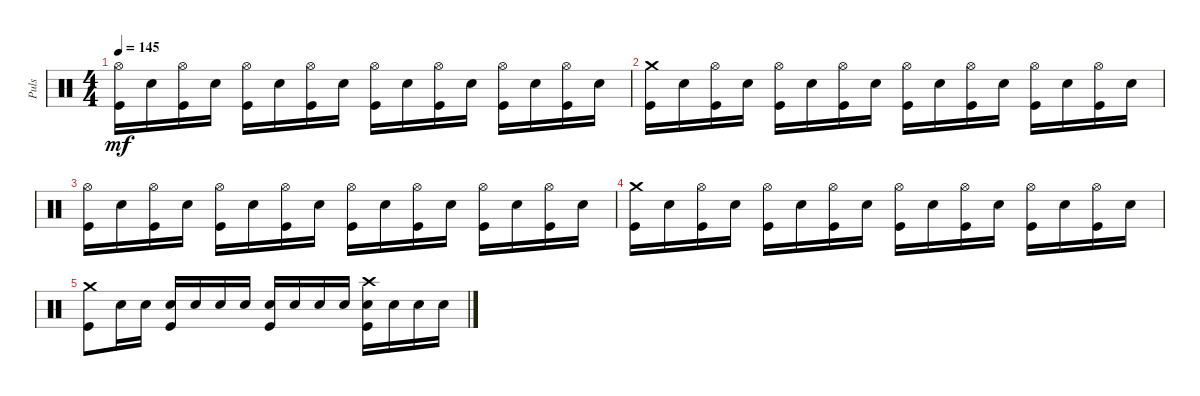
\track ("Puls" "Puls") {instrument percussion}
\staff {score}
\articulation defaults
\ts (4 4)
\tempo 145
\clef neutral
\ks c
("Kick (hit)" "Hi-Hat (open)").16{dy mf} "Snare (hit) 2".16 ("Kick (hit)" "Hi-Hat (open)").16 "Snare (hit) 2".16 ("Kick (hit)" "Hi-Hat (open)").16 "Snare (hit) 2".16 ("Kick (hit)" "Hi-Hat (open)").16 "Snare (hit) 2".16 ("Kick (hit)" "Hi-Hat (open)").16 "Snare (hit) 2".16 ("Kick (hit)" "Hi-Hat (open)").16 "Snare (hit) 2".16 ("Kick (hit)" "Hi-Hat (open)").16 "Snare (hit) 2".16 ("Kick (hit)" "Hi-Hat (open)").16 "Snare (hit) 2".16 |
("Kick (hit)" "Crash medium (hit)").16 "Snare (hit) 2".16 ("Kick (hit)" "Hi-Hat (open)").16 "Snare (hit) 2".16 ("Kick (hit)" "Hi-Hat (open)").16 "Snare (hit) 2".16 ("Kick (hit)" "Hi-Hat (open)").16 "Snare (hit) 2".16 ("Kick (hit)" "Hi-Hat (open)").16 "Snare (hit) 2".16 ("Kick (hit)" "Hi-Hat (open)").16 "Snare (hit) 2".16 ("Kick (hit)" "Hi-Hat (open)").16 "Snare (hit) 2".16 ("Kick (hit)" "Hi-Hat (open)").16 "Snare (hit) 2".16 |
("Kick (hit)" "Hi-Hat (open)").16 "Snare (hit) 2".16 ("Kick (hit)" "Hi-Hat (open)").16 "Snare (hit) 2".16 ("Kick (hit)" "Hi-Hat (open)").16 "Snare (hit) 2".16 ("Kick (hit)" "Hi-Hat (open)").16 "Snare (hit) 2".16 ("Kick (hit)" "Hi-Hat (open)").16 "Snare (hit) 2".16 ("Kick (hit)" "Hi-Hat (open)").16 "Snare (hit) 2".16 ("Kick (hit)" "Hi-Hat (open)").16 "Snare (hit) 2".16 ("Kick (hit)" "Hi-Hat (open)").16 "Snare (hit) 2".16 |
("Kick (hit)" "Crash medium (hit)").16 "Snare (hit) 2".16 ("Kick (hit)" "Hi-Hat (open)").16 "Snare (hit) 2".16 ("Kick (hit)" "Hi-Hat (open)").16 "Snare (hit) 2".16 ("Kick (hit)" "Hi-Hat (open)").16 "Snare (hit) 2".16 ("Kick (hit)" "Hi-Hat (open)").16 "Snare (hit) 2".16 ("Kick (hit)" "Hi-Hat (open)").16 "Snare (hit) 2".16 ("Kick (hit)" "Hi-Hat (open)").16 "Snare (hit) 2".16 ("Kick (hit)" "Hi-Hat (open)").16 "Snare (hit) 2".16 |
("Crash medium (hit)" "Kick (hit)").8 "Snare (hit) 2".16 "Snare (hit) 2".16 ("Snare (hit) 2" "Kick (hit)").16 "Snare (hit) 2".16 "Snare (hit) 2".16 "Snare (hit) 2".16 ("Snare (hit) 2" "Kick (hit)").16 "Snare (hit) 2".16 "Snare (hit) 2".16 "Snare (hit) 2".16 ("Snare (hit) 2" "Kick (hit)" "Crash high (hit)").16 "Snare (hit) 2".16 "Snare (hit) 2".16 "Snare (hit) 2".16
